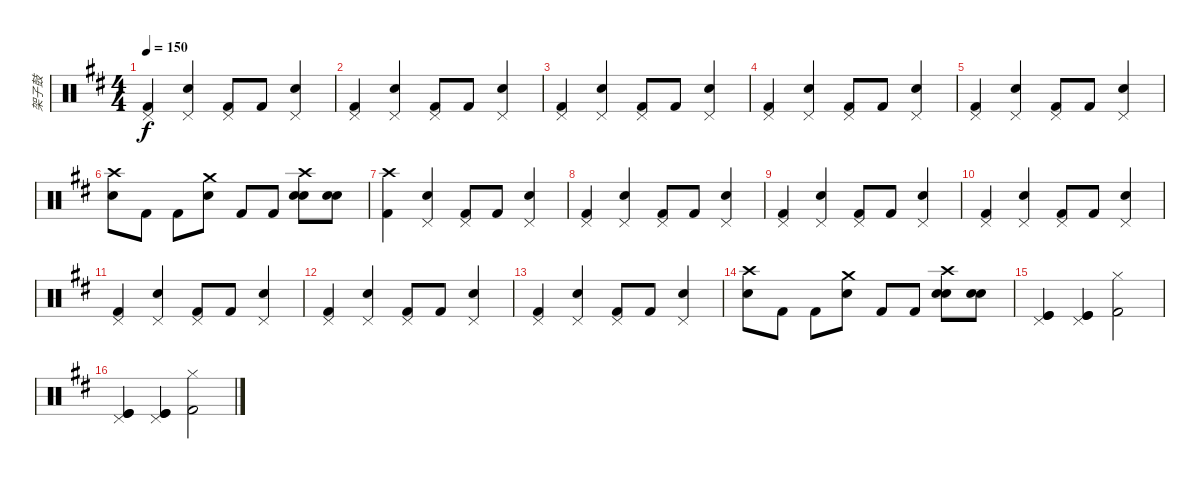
\track ("架子鼓" "架子鼓") {instrument percussion}
\staff {score}
\articulation defaults
\ts (4 4)
\tempo 150
\clef neutral
\ks bminor
("Pedal Hi-Hat (hit)" "Kick (hit) 2").4{dy f} ("Pedal Hi-Hat (hit)" "Snare (hit) 2").4 ("Pedal Hi-Hat (hit)" "Kick (hit) 2").8 "Kick (hit) 2".8 ("Pedal Hi-Hat (hit)" "Snare (hit) 2").4 |
("Pedal Hi-Hat (hit)" "Kick (hit) 2").4 ("Pedal Hi-Hat (hit)" "Snare (hit) 2").4 ("Pedal Hi-Hat (hit)" "Kick (hit) 2").8 "Kick (hit) 2".8 ("Pedal Hi-Hat (hit)" "Snare (hit) 2").4 |
("Pedal Hi-Hat (hit)" "Kick (hit) 2").4 ("Pedal Hi-Hat (hit)" "Snare (hit) 2").4 ("Pedal Hi-Hat (hit)" "Kick (hit) 2").8 "Kick (hit) 2".8 ("Pedal Hi-Hat (hit)" "Snare (hit) 2").4 |
("Pedal Hi-Hat (hit)" "Kick (hit) 2").4 ("Pedal Hi-Hat (hit)" "Snare (hit) 2").4 ("Pedal Hi-Hat (hit)" "Kick (hit) 2").8 "Kick (hit) 2".8 ("Pedal Hi-Hat (hit)" "Snare (hit) 2").4 |
("Pedal Hi-Hat (hit)" "Kick (hit) 2").4 ("Pedal Hi-Hat (hit)" "Snare (hit) 2").4 ("Pedal Hi-Hat (hit)" "Kick (hit) 2").8 "Kick (hit) 2".8 ("Pedal Hi-Hat (hit)" "Snare (hit) 2").4 |
("Crash high (hit)" "Snare (hit) 2").8 "Kick (hit) 2".8 "Kick (hit) 2".8 ("Crash medium (hit)" "Snare (hit) 2").8 "Kick (hit) 2".8 "Kick (hit) 2".8 ("Crash high (hit)" "Snare (hit) 2" "Snare (hit) 2").8 ("Snare (hit) 2" "Snare (hit) 2").8 |
("Crash high (hit)" "Kick (hit) 2").4 ("Pedal Hi-Hat (hit)" "Snare (hit) 2").4 ("Pedal Hi-Hat (hit)" "Kick (hit) 2").8 "Kick (hit) 2".8 ("Pedal Hi-Hat (hit)" "Snare (hit) 2").4 |
("Pedal Hi-Hat (hit)" "Kick (hit) 2").4 ("Pedal Hi-Hat (hit)" "Snare (hit) 2").4 ("Pedal Hi-Hat (hit)" "Kick (hit) 2").8 "Kick (hit) 2".8 ("Pedal Hi-Hat (hit)" "Snare (hit) 2").4 |
("Pedal Hi-Hat (hit)" "Kick (hit) 2").4 ("Pedal Hi-Hat (hit)" "Snare (hit) 2").4 ("Pedal Hi-Hat (hit)" "Kick (hit) 2").8 "Kick (hit) 2".8 ("Pedal Hi-Hat (hit)" "Snare (hit) 2").4 |
("Pedal Hi-Hat (hit)" "Kick (hit) 2").4 ("Pedal Hi-Hat (hit)" "Snare (hit) 2").4 ("Pedal Hi-Hat (hit)" "Kick (hit) 2").8 "Kick (hit) 2".8 ("Pedal Hi-Hat (hit)" "Snare (hit) 2").4 |
("Pedal Hi-Hat (hit)" "Kick (hit) 2").4 ("Pedal Hi-Hat (hit)" "Snare (hit) 2").4 ("Pedal Hi-Hat (hit)" "Kick (hit) 2").8 "Kick (hit) 2".8 ("Pedal Hi-Hat (hit)" "Snare (hit) 2").4 |
("Pedal Hi-Hat (hit)" "Kick (hit) 2").4 ("Pedal Hi-Hat (hit)" "Snare (hit) 2").4 ("Pedal Hi-Hat (hit)" "Kick (hit) 2").8 "Kick (hit) 2".8 ("Pedal Hi-Hat (hit)" "Snare (hit) 2").4 |
("Pedal Hi-Hat (hit)" "Kick (hit) 2").4 ("Pedal Hi-Hat (hit)" "Snare (hit) 2").4 ("Pedal Hi-Hat (hit)" "Kick (hit) 2").8 "Kick (hit) 2".8 ("Pedal Hi-Hat (hit)" "Snare (hit) 2").4 |
("Crash high (hit)" "Snare (hit) 2").8 "Kick (hit) 2".8 "Kick (hit) 2".8 ("Crash medium (hit)" "Snare (hit) 2").8 "Kick (hit) 2".8 "Kick (hit) 2".8 ("Crash high (hit)" "Snare (hit) 2" "Snare (hit) 2").8 ("Snare (hit) 2" "Snare (hit) 2").8 |
("Kick (hit)" "Kick (hit)" "Pedal Hi-Hat (hit)").4 ("Kick (hit)" "Kick (hit)" "Pedal Hi-Hat (hit)").4 ("Kick (hit) 2" "Hi-Hat (closed)").2 |
("Kick (hit)" "Kick (hit)" "Pedal Hi-Hat (hit)").4 ("Kick (hit)" "Kick (hit)" "Pedal Hi-Hat (hit)").4 ("Kick (hit) 2" "Hi-Hat (closed)").2
